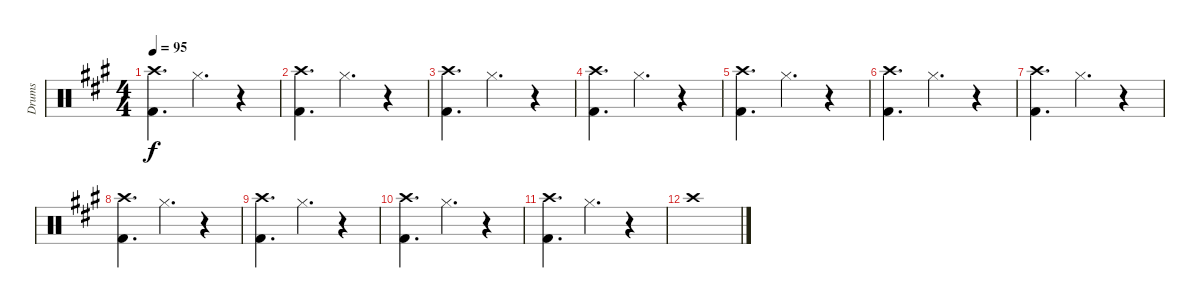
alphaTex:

\track ("Drums" "Drums") {instrument percussion}
\staff {score}
\articulation defaults
\ts (4 4)
\tempo 95
\clef neutral
\ks a
("Crash high (hit)" "Kick (hit) 2").4{d dy f} "Hi-Hat (closed)".4{d} r.4 |
("Crash high (hit)" "Kick (hit) 2").4{d} "Hi-Hat (closed)".4{d} r.4 |
("Crash high (hit)" "Kick (hit) 2").4{d} "Hi-Hat (closed)".4{d} r.4 |
("Crash high (hit)" "Kick (hit) 2").4{d} "Hi-Hat (closed)".4{d} r.4 |
("Crash high (hit)" "Kick (hit) 2").4{d} "Hi-Hat (closed)".4{d} r.4 |
("Crash high (hit)" "Kick (hit) 2").4{d volume 10} "Hi-Hat (closed)".4{d} r.4 |
("Crash high (hit)" "Kick (hit) 2").4{d} "Hi-Hat (closed)".4{d} r.4 |
("Crash high (hit)" "Kick (hit) 2").4{d volume 5} "Hi-Hat (closed)".4{d} r.4 |
("Crash high (hit)" "Kick (hit) 2").4{d} "Hi-Hat (closed)".4{d} r.4 |
("Crash high (hit)" "Kick (hit) 2").4{d} "Hi-Hat (closed)".4{d} r.4 |
("Crash high (hit)" "Kick (hit) 2").4{d} "Hi-Hat (closed)".4{d} r.4 |
"Crash high (hit)".1
